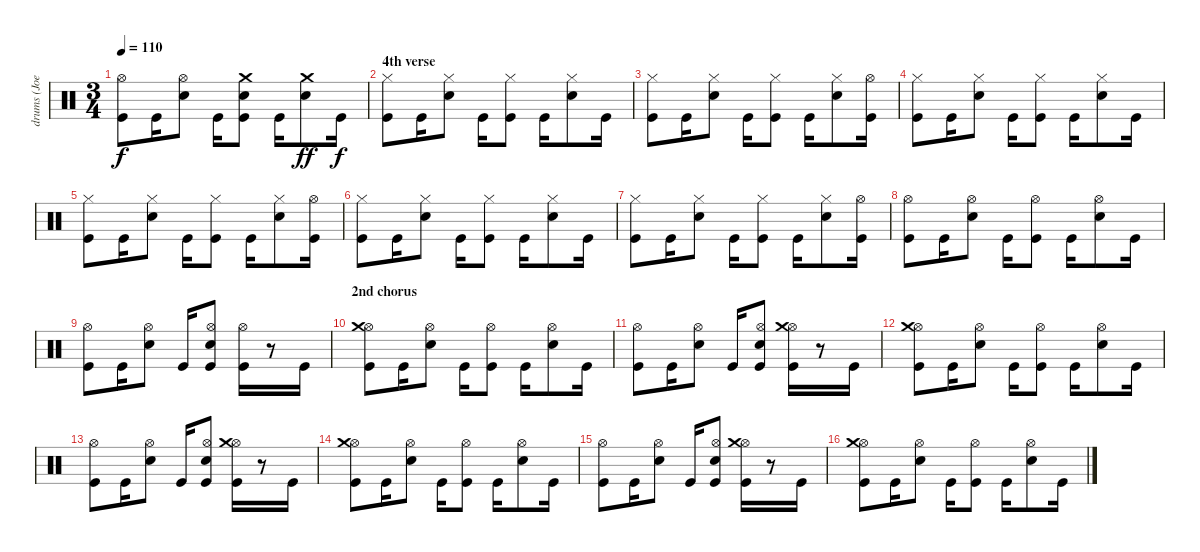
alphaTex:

\track ("drums (Joey Castillo)" "drums (Joe") {instrument percussion}
\staff {score}
\articulation defaults
\ts (3 4)
\tempo 110
\clef neutral
\ks c
("Kick (hit)" "Hi-Hat (open)").8{dy f} "Kick (hit)".16 ("Electric Snare (hit)" "Hi-Hat (open)").8 "Kick (hit)".16 ("Kick (hit)" "Electric Snare (hit)" "Crash medium (hit)").8 "Kick (hit)".16 ("Electric Snare (hit)" "Crash medium (hit)").8{dy ff} "Kick (hit)".16{dy f} |
\section ("" "4th verse")
("Kick (hit)" "Hi-Hat (closed)").8 "Kick (hit)".16 ("Electric Snare (hit)" "Hi-Hat (closed)").8 "Kick (hit)".16 ("Kick (hit)" "Hi-Hat (closed)").8 "Kick (hit)".16 ("Electric Snare (hit)" "Hi-Hat (closed)").8 "Kick (hit)".16 |
("Kick (hit)" "Hi-Hat (closed)").8 "Kick (hit)".16 ("Electric Snare (hit)" "Hi-Hat (closed)").8 "Kick (hit)".16 ("Kick (hit)" "Hi-Hat (closed)").8 "Kick (hit)".16 ("Electric Snare (hit)" "Hi-Hat (closed)").8 ("Kick (hit)" "Hi-Hat (open)").16 |
("Kick (hit)" "Hi-Hat (closed)").8 "Kick (hit)".16 ("Electric Snare (hit)" "Hi-Hat (closed)").8 "Kick (hit)".16 ("Kick (hit)" "Hi-Hat (closed)").8 "Kick (hit)".16 ("Electric Snare (hit)" "Hi-Hat (closed)").8 "Kick (hit)".16 |
("Kick (hit)" "Hi-Hat (closed)").8 "Kick (hit)".16 ("Electric Snare (hit)" "Hi-Hat (closed)").8 "Kick (hit)".16 ("Kick (hit)" "Hi-Hat (closed)").8 "Kick (hit)".16 ("Electric Snare (hit)" "Hi-Hat (closed)").8 ("Kick (hit)" "Hi-Hat (open)").16 |
("Kick (hit)" "Hi-Hat (closed)").8 "Kick (hit)".16 ("Electric Snare (hit)" "Hi-Hat (closed)").8 "Kick (hit)".16 ("Kick (hit)" "Hi-Hat (closed)").8 "Kick (hit)".16 ("Electric Snare (hit)" "Hi-Hat (closed)").8 "Kick (hit)".16 |
("Kick (hit)" "Hi-Hat (closed)").8 "Kick (hit)".16 ("Electric Snare (hit)" "Hi-Hat (closed)").8 "Kick (hit)".16 ("Kick (hit)" "Hi-Hat (closed)").8 "Kick (hit)".16 ("Electric Snare (hit)" "Hi-Hat (closed)").8 ("Kick (hit)" "Hi-Hat (open)").16 |
("Kick (hit)" "Hi-Hat (open)").8 "Kick (hit)".16 ("Electric Snare (hit)" "Hi-Hat (open)").8 "Kick (hit)".16 ("Kick (hit)" "Hi-Hat (open)").8 "Kick (hit)".16 ("Electric Snare (hit)" "Hi-Hat (open)").8 "Kick (hit)".16 |
("Kick (hit)" "Hi-Hat (open)").8 "Kick (hit)".16 ("Electric Snare (hit)" "Hi-Hat (open)").8 "Kick (hit)".16 ("Kick (hit)" "Electric Snare (hit)" "Hi-Hat (open)").8 ("Kick (hit)" "Hi-Hat (open)").16 r.8 "Kick (hit)".16 |
\section ("" "2nd chorus")
("Kick (hit)" "Hi-Hat (open)" "Crash medium (hit)").8 "Kick (hit)".16 ("Electric Snare (hit)" "Hi-Hat (open)").8 "Kick (hit)".16 ("Kick (hit)" "Hi-Hat (open)").8 "Kick (hit)".16 ("Electric Snare (hit)" "Hi-Hat (open)").8 "Kick (hit)".16 |
("Kick (hit)" "Hi-Hat (open)").8 "Kick (hit)".16 ("Electric Snare (hit)" "Hi-Hat (open)").8 "Kick (hit)".16 ("Kick (hit)" "Electric Snare (hit)" "Hi-Hat (open)").8 ("Kick (hit)" "Hi-Hat (open)" "Crash medium (hit)").16 r.8 "Kick (hit)".16 |
("Kick (hit)" "Hi-Hat (open)" "Crash medium (hit)").8 "Kick (hit)".16 ("Electric Snare (hit)" "Hi-Hat (open)").8 "Kick (hit)".16 ("Kick (hit)" "Hi-Hat (open)").8 "Kick (hit)".16 ("Electric Snare (hit)" "Hi-Hat (open)").8 "Kick (hit)".16 |
("Kick (hit)" "Hi-Hat (open)").8 "Kick (hit)".16 ("Electric Snare (hit)" "Hi-Hat (open)").8 "Kick (hit)".16 ("Kick (hit)" "Electric Snare (hit)" "Hi-Hat (open)").8 ("Kick (hit)" "Hi-Hat (open)" "Crash medium (hit)").16 r.8 "Kick (hit)".16 |
("Kick (hit)" "Hi-Hat (open)" "Crash medium (hit)").8 "Kick (hit)".16 ("Electric Snare (hit)" "Hi-Hat (open)").8 "Kick (hit)".16 ("Kick (hit)" "Hi-Hat (open)").8 "Kick (hit)".16 ("Electric Snare (hit)" "Hi-Hat (open)").8 "Kick (hit)".16 |
("Kick (hit)" "Hi-Hat (open)").8 "Kick (hit)".16 ("Electric Snare (hit)" "Hi-Hat (open)").8 "Kick (hit)".16 ("Kick (hit)" "Electric Snare (hit)" "Hi-Hat (open)").8 ("Kick (hit)" "Hi-Hat (open)" "Crash medium (hit)").16 r.8 "Kick (hit)".16 |
("Kick (hit)" "Hi-Hat (open)" "Crash medium (hit)").8 "Kick (hit)".16 ("Electric Snare (hit)" "Hi-Hat (open)").8 "Kick (hit)".16 ("Kick (hit)" "Hi-Hat (open)").8 "Kick (hit)".16 ("Electric Snare (hit)" "Hi-Hat (open)").8 "Kick (hit)".16
